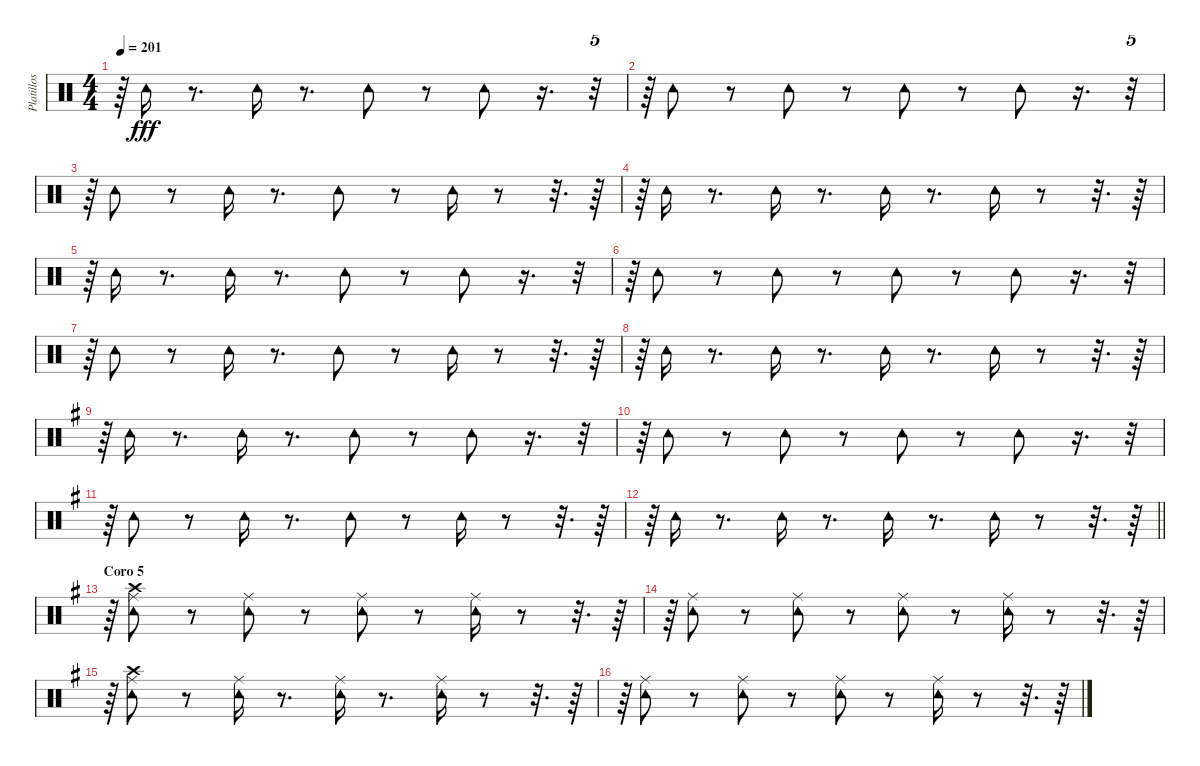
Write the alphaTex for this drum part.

\track ("Platillos y pandero" "Platillos ") {instrument percussion}
\staff {score}
\articulation defaults
\ts (4 4)
\tempo 201
\clef neutral
\ks c
r.64{dy fff} "Tambourine (hit)".16 r.8{d} "Tambourine (hit)".16 r.8{d} "Tambourine (hit)".8 r.8 "Tambourine (hit)".8 r.16{d} r.32{tu (5 4)} |
r.64 "Tambourine (hit)".8 r.8 "Tambourine (hit)".8 r.8 "Tambourine (hit)".8 r.8 "Tambourine (hit)".8 r.16{d} r.32{tu (5 4)} |
r.64 "Tambourine (hit)".8 r.8 "Tambourine (hit)".16 r.8{d} "Tambourine (hit)".8 r.8 "Tambourine (hit)".16 r.8 r.32{d} r.64 |
r.64 "Tambourine (hit)".16 r.8{d} "Tambourine (hit)".16 r.8{d} "Tambourine (hit)".16 r.8{d} "Tambourine (hit)".16 r.8 r.32{d} r.64 |
r.64 "Tambourine (hit)".16 r.8{d} "Tambourine (hit)".16 r.8{d} "Tambourine (hit)".8 r.8 "Tambourine (hit)".8 r.16{d} r.32{tu (5 4)} |
r.64 "Tambourine (hit)".8 r.8 "Tambourine (hit)".8 r.8 "Tambourine (hit)".8 r.8 "Tambourine (hit)".8 r.16{d} r.32{tu (5 4)} |
r.64 "Tambourine (hit)".8 r.8 "Tambourine (hit)".16 r.8{d} "Tambourine (hit)".8 r.8 "Tambourine (hit)".16 r.8 r.32{d} r.64 |
r.64 "Tambourine (hit)".16 r.8{d} "Tambourine (hit)".16 r.8{d} "Tambourine (hit)".16 r.8{d} "Tambourine (hit)".16 r.8 r.32{d} r.64 |
\ks g
r.64 "Tambourine (hit)".16 r.8{d} "Tambourine (hit)".16 r.8{d} "Tambourine (hit)".8 r.8 "Tambourine (hit)".8 r.16{d} r.32{tu (5 4)} |
r.64 "Tambourine (hit)".8 r.8 "Tambourine (hit)".8 r.8 "Tambourine (hit)".8 r.8 "Tambourine (hit)".8 r.16{d} r.32{tu (5 4)} |
r.64 "Tambourine (hit)".8 r.8 "Tambourine (hit)".16 r.8{d} "Tambourine (hit)".8 r.8 "Tambourine (hit)".16 r.8 r.32{d} r.64 |
\barLineRight lightlight
r.64 "Tambourine (hit)".16 r.8{d} "Tambourine (hit)".16 r.8{d} "Tambourine (hit)".16 r.8{d} "Tambourine (hit)".16 r.8 r.32{d} r.64 |
\section ("" "Coro 5")
r.64 ("Ride (middle)" "Crash high (hit)" "Tambourine (hit)").8 r.8 ("Ride (middle)" "Tambourine (hit)").8 r.8 ("Ride (middle)" "Tambourine (hit)").8 r.8 ("Tambourine (hit)" "Ride (middle)").16 r.8 r.32{d} r.64 |
r.64 ("Ride (middle)" "Tambourine (hit)").8 r.8 ("Ride (middle)" "Tambourine (hit)").8 r.8 ("Ride (middle)" "Tambourine (hit)").8 r.8 ("Ride (middle)" "Tambourine (hit)").16 r.8 r.32{d} r.64 |
r.64 ("Crash high (hit)" "Ride (middle)" "Tambourine (hit)").8 r.8 ("Ride (middle)" "Tambourine (hit)").16 r.8{d} ("Tambourine (hit)" "Ride (middle)").16 r.8{d} ("Ride (middle)" "Tambourine (hit)").16 r.8 r.32{d} r.64 |
r.64 ("Tambourine (hit)" "Ride (middle)").8 r.8 ("Ride (middle)" "Tambourine (hit)").8 r.8 ("Ride (middle)" "Tambourine (hit)").8 r.8 ("Ride (middle)" "Tambourine (hit)").16 r.8 r.32{d} r.64
